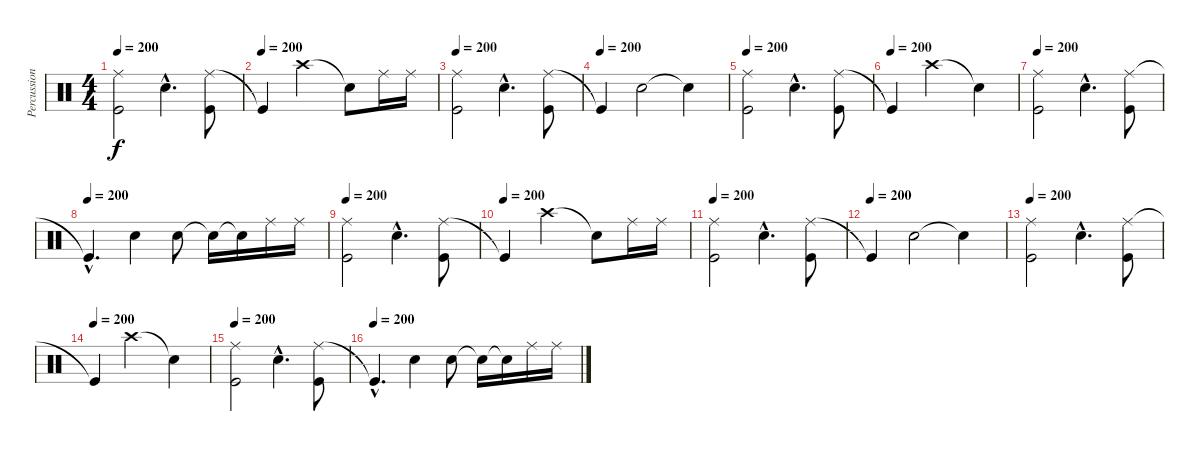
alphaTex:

\track ("Percussion" "Percussion") {instrument percussion}
\staff {score}
\articulation defaults
\ts (4 4)
\tempo 200
\clef neutral
\ks c
("Ride (middle)" "Kick (hit)").2{dy f} "Electric Snare (hit)"{hac}.4{d} ("Ride (middle)" "Kick (hit)").8 |
\tempo (200)
"Kick (hit)"{t}.4 "Crash high (hit)".2 "Snare (hit)"{t}.8 "Ride (middle)".16 "Ride (middle)".16 |
\tempo 200
("Ride (middle)" "Kick (hit)").2 "Electric Snare (hit)"{hac}.4{d} ("Ride (middle)" "Kick (hit)").8 |
\tempo (200)
"Kick (hit)"{t}.4 "Electric Snare (hit)".2 "Snare (hit)"{t}.4 |
\tempo 200
("Ride (middle)" "Kick (hit)").2 "Electric Snare (hit)"{hac}.4{d} ("Ride (middle)" "Kick (hit)").8 |
\tempo (200)
"Kick (hit)"{t}.4 "Crash high (hit)".2 "Snare (hit)"{t}.4 |
\tempo 200
("Ride (middle)" "Kick (hit)").2 "Electric Snare (hit)"{hac}.4{d} ("Ride (middle)" "Kick (hit)").8 |
\tempo (200)
"Kick (hit)"{hac t}.4{d} "Electric Snare (hit)".4 "Electric Snare (hit)".8 "Snare (hit)"{t}.16 "Snare (hit)"{t}.16 "Ride (middle)".16 "Ride (middle)".16 |
\tempo 200
("Ride (middle)" "Kick (hit)").2 "Electric Snare (hit)"{hac}.4{d} ("Ride (middle)" "Kick (hit)").8 |
\tempo (200)
"Kick (hit)"{t}.4 "Crash high (hit)".2 "Snare (hit)"{t}.8 "Ride (middle)".16 "Ride (middle)".16 |
\tempo 200
("Ride (middle)" "Kick (hit)").2 "Electric Snare (hit)"{hac}.4{d} ("Ride (middle)" "Kick (hit)").8 |
\tempo (200)
"Kick (hit)"{t}.4 "Electric Snare (hit)".2 "Snare (hit)"{t}.4 |
\tempo 200
("Ride (middle)" "Kick (hit)").2 "Electric Snare (hit)"{hac}.4{d} ("Ride (middle)" "Kick (hit)").8 |
\tempo (200)
"Kick (hit)"{t}.4 "Crash high (hit)".2 "Snare (hit)"{t}.4 |
\tempo 200
("Ride (middle)" "Kick (hit)").2 "Electric Snare (hit)"{hac}.4{d} ("Ride (middle)" "Kick (hit)").8 |
\tempo (200)
"Kick (hit)"{hac t}.4{d} "Electric Snare (hit)".4 "Electric Snare (hit)".8 "Snare (hit)"{t}.16 "Snare (hit)"{t}.16 "Ride (middle)".16 "Ride (middle)".16
